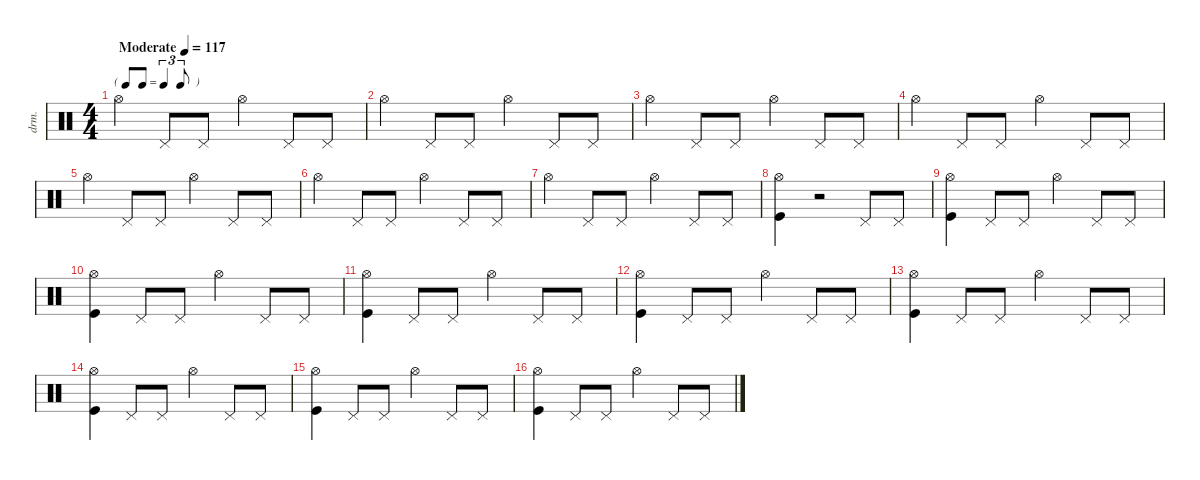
\defaultSystemsLayout 4
\hideDynamics
\bracketExtendMode nobrackets
\otherSystemsTrackNameOrientation horizontal
\track ("Percussions" "drm.") {instrument percussion}
\staff {score}
\articulation defaults
\ts (4 4)
\beaming (8 2 2 2 2)
\tf triplet8th
\tempo (117 "Moderate")
\clef neutral
\ks c "Hi-Hat (open)".4{dy f} "Pedal Hi-Hat (hit)".8 "Pedal Hi-Hat (hit)".8 "Hi-Hat (open)".4 "Pedal Hi-Hat (hit)".8 "Pedal Hi-Hat (hit)".8
|
"Hi-Hat (open)".4 "Pedal Hi-Hat (hit)".8 "Pedal Hi-Hat (hit)".8 "Hi-Hat (open)".4 "Pedal Hi-Hat (hit)".8 "Pedal Hi-Hat (hit)".8 |
"Hi-Hat (open)".4 "Pedal Hi-Hat (hit)".8 "Pedal Hi-Hat (hit)".8 "Hi-Hat (open)".4 "Pedal Hi-Hat (hit)".8 "Pedal Hi-Hat (hit)".8 |
"Hi-Hat (open)".4 "Pedal Hi-Hat (hit)".8 "Pedal Hi-Hat (hit)".8 "Hi-Hat (open)".4 "Pedal Hi-Hat (hit)".8 "Pedal Hi-Hat (hit)".8 |
"Hi-Hat (open)".4 "Pedal Hi-Hat (hit)".8 "Pedal Hi-Hat (hit)".8 "Hi-Hat (open)".4 "Pedal Hi-Hat (hit)".8 "Pedal Hi-Hat (hit)".8 |
"Hi-Hat (open)".4 "Pedal Hi-Hat (hit)".8 "Pedal Hi-Hat (hit)".8 "Hi-Hat (open)".4 "Pedal Hi-Hat (hit)".8 "Pedal Hi-Hat (hit)".8 |
"Hi-Hat (open)".4 "Pedal Hi-Hat (hit)".8 "Pedal Hi-Hat (hit)".8 "Hi-Hat (open)".4 "Pedal Hi-Hat (hit)".8 "Pedal Hi-Hat (hit)".8 |
("Hi-Hat (open)" "Kick (hit)").4 r.2 "Pedal Hi-Hat (hit)".8 "Pedal Hi-Hat (hit)".8 |
("Hi-Hat (open)" "Kick (hit)").4 "Pedal Hi-Hat (hit)".8 "Pedal Hi-Hat (hit)".8 "Hi-Hat (open)".4 "Pedal Hi-Hat (hit)".8 "Pedal Hi-Hat (hit)".8 |
("Hi-Hat (open)" "Kick (hit)").4 "Pedal Hi-Hat (hit)".8 "Pedal Hi-Hat (hit)".8 "Hi-Hat (open)".4 "Pedal Hi-Hat (hit)".8 "Pedal Hi-Hat (hit)".8 |
("Hi-Hat (open)" "Kick (hit)").4 "Pedal Hi-Hat (hit)".8 "Pedal Hi-Hat (hit)".8 "Hi-Hat (open)".4 "Pedal Hi-Hat (hit)".8 "Pedal Hi-Hat (hit)".8 |
("Hi-Hat (open)" "Kick (hit)").4 "Pedal Hi-Hat (hit)".8 "Pedal Hi-Hat (hit)".8 "Hi-Hat (open)".4 "Pedal Hi-Hat (hit)".8 "Pedal Hi-Hat (hit)".8 |
("Hi-Hat (open)" "Kick (hit)").4 "Pedal Hi-Hat (hit)".8 "Pedal Hi-Hat (hit)".8 "Hi-Hat (open)".4 "Pedal Hi-Hat (hit)".8 "Pedal Hi-Hat (hit)".8 |
("Hi-Hat (open)" "Kick (hit)").4 "Pedal Hi-Hat (hit)".8 "Pedal Hi-Hat (hit)".8 "Hi-Hat (open)".4 "Pedal Hi-Hat (hit)".8 "Pedal Hi-Hat (hit)".8 |
("Hi-Hat (open)" "Kick (hit)").4 "Pedal Hi-Hat (hit)".8 "Pedal Hi-Hat (hit)".8 "Hi-Hat (open)".4 "Pedal Hi-Hat (hit)".8 "Pedal Hi-Hat (hit)".8 |
("Hi-Hat (open)" "Kick (hit)").4 "Pedal Hi-Hat (hit)".8 "Pedal Hi-Hat (hit)".8 "Hi-Hat (open)".4 "Pedal Hi-Hat (hit)".8 "Pedal Hi-Hat (hit)".8
